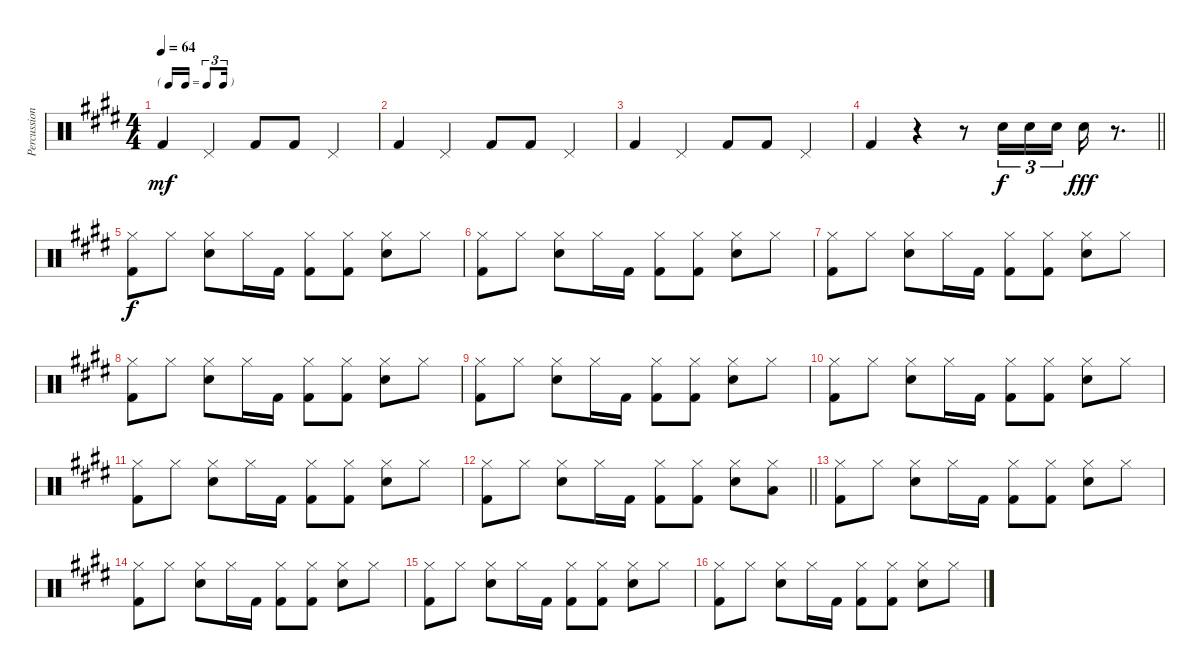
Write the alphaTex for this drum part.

\track ("Percussion" "Percussion") {instrument percussion}
\staff {score}
\articulation defaults
\ts (4 4)
\tf triplet16th
\tempo 64
\clef neutral
\ks e "Kick (hit) 2".4{dy mf} "Pedal Hi-Hat (hit)".4 "Kick (hit) 2".8 "Kick (hit) 2".8 "Pedal Hi-Hat (hit)".4
|
"Kick (hit) 2".4 "Pedal Hi-Hat (hit)".4 "Kick (hit) 2".8 "Kick (hit) 2".8 "Pedal Hi-Hat (hit)".4 |
"Kick (hit) 2".4 "Pedal Hi-Hat (hit)".4 "Kick (hit) 2".8 "Kick (hit) 2".8 "Pedal Hi-Hat (hit)".4 |
\barLineRight lightlight "Kick (hit) 2".4
r.4 r.8 "Snare (hit) 2".16{tu (3 2) dy f} "Snare (hit) 2".16{tu (3 2)} "Snare (hit) 2".16{tu (3 2)} "Snare (hit) 2".16{dy fff} r.8{d} |
("Hi-Hat (closed)" "Kick (hit) 2").8{dy f} "Hi-Hat (closed)".8 ("Hi-Hat (closed)" "Snare (hit) 2").8 "Hi-Hat (closed)".16 "Kick (hit) 2".16 ("Hi-Hat (closed)" "Kick (hit) 2").8 ("Hi-Hat (closed)" "Kick (hit) 2").8 ("Hi-Hat (closed)" "Snare (hit) 2").8 "Hi-Hat (closed)".8 |
("Hi-Hat (closed)" "Kick (hit) 2").8 "Hi-Hat (closed)".8 ("Hi-Hat (closed)" "Snare (hit) 2").8 "Hi-Hat (closed)".16 "Kick (hit) 2".16 ("Hi-Hat (closed)" "Kick (hit) 2").8 ("Hi-Hat (closed)" "Kick (hit) 2").8 ("Hi-Hat (closed)" "Snare (hit) 2").8 "Hi-Hat (closed)".8 |
("Hi-Hat (closed)" "Kick (hit) 2").8 "Hi-Hat (closed)".8 ("Hi-Hat (closed)" "Snare (hit) 2").8 "Hi-Hat (closed)".16 "Kick (hit) 2".16 ("Hi-Hat (closed)" "Kick (hit) 2").8 ("Hi-Hat (closed)" "Kick (hit) 2").8 ("Hi-Hat (closed)" "Snare (hit) 2").8 "Hi-Hat (closed)".8 |
("Hi-Hat (closed)" "Kick (hit) 2").8 "Hi-Hat (closed)".8 ("Hi-Hat (closed)" "Snare (hit) 2").8 "Hi-Hat (closed)".16 "Kick (hit) 2".16 ("Hi-Hat (closed)" "Kick (hit) 2").8 ("Hi-Hat (closed)" "Kick (hit) 2").8 ("Hi-Hat (closed)" "Snare (hit) 2").8 "Hi-Hat (closed)".8 |
("Hi-Hat (closed)" "Kick (hit) 2").8 "Hi-Hat (closed)".8 ("Hi-Hat (closed)" "Snare (hit) 2").8 "Hi-Hat (closed)".16 "Kick (hit) 2".16 ("Hi-Hat (closed)" "Kick (hit) 2").8 ("Hi-Hat (closed)" "Kick (hit) 2").8 ("Hi-Hat (closed)" "Snare (hit) 2").8 "Hi-Hat (closed)".8 |
("Hi-Hat (closed)" "Kick (hit) 2").8 "Hi-Hat (closed)".8 ("Hi-Hat (closed)" "Snare (hit) 2").8 "Hi-Hat (closed)".16 "Kick (hit) 2".16 ("Hi-Hat (closed)" "Kick (hit) 2").8 ("Hi-Hat (closed)" "Kick (hit) 2").8 ("Hi-Hat (closed)" "Snare (hit) 2").8 "Hi-Hat (closed)".8 |
("Hi-Hat (closed)" "Kick (hit) 2").8 "Hi-Hat (closed)".8 ("Hi-Hat (closed)" "Snare (hit) 2").8 "Hi-Hat (closed)".16 "Kick (hit) 2".16 ("Hi-Hat (closed)" "Kick (hit) 2").8 ("Hi-Hat (closed)" "Kick (hit) 2").8 ("Hi-Hat (closed)" "Snare (hit) 2").8 "Hi-Hat (closed)".8 |
\barLineRight lightlight
("Hi-Hat (closed)" "Kick (hit) 2").8 "Hi-Hat (closed)".8 ("Hi-Hat (closed)" "Snare (hit) 2").8 "Hi-Hat (closed)".16 "Kick (hit) 2".16 ("Hi-Hat (closed)" "Kick (hit) 2").8 ("Hi-Hat (closed)" "Kick (hit) 2").8 ("Hi-Hat (closed)" "Snare (hit) 2").8 ("Hi-Hat (closed)" "Low Tom (hit)").8 |
("Hi-Hat (closed)" "Kick (hit) 2").8 "Hi-Hat (closed)".8 ("Hi-Hat (closed)" "Snare (hit) 2").8 "Hi-Hat (closed)".16 "Kick (hit) 2".16 ("Hi-Hat (closed)" "Kick (hit) 2").8 ("Hi-Hat (closed)" "Kick (hit) 2").8 ("Hi-Hat (closed)" "Snare (hit) 2").8 "Hi-Hat (closed)".8 |
("Hi-Hat (closed)" "Kick (hit) 2").8 "Hi-Hat (closed)".8 ("Hi-Hat (closed)" "Snare (hit) 2").8 "Hi-Hat (closed)".16 "Kick (hit) 2".16 ("Hi-Hat (closed)" "Kick (hit) 2").8 ("Hi-Hat (closed)" "Kick (hit) 2").8 ("Hi-Hat (closed)" "Snare (hit) 2").8 "Hi-Hat (closed)".8 |
("Hi-Hat (closed)" "Kick (hit) 2").8 "Hi-Hat (closed)".8 ("Hi-Hat (closed)" "Snare (hit) 2").8 "Hi-Hat (closed)".16 "Kick (hit) 2".16 ("Hi-Hat (closed)" "Kick (hit) 2").8 ("Hi-Hat (closed)" "Kick (hit) 2").8 ("Hi-Hat (closed)" "Snare (hit) 2").8 "Hi-Hat (closed)".8 |
("Hi-Hat (closed)" "Kick (hit) 2").8 "Hi-Hat (closed)".8 ("Hi-Hat (closed)" "Snare (hit) 2").8 "Hi-Hat (closed)".16 "Kick (hit) 2".16 ("Hi-Hat (closed)" "Kick (hit) 2").8 ("Hi-Hat (closed)" "Kick (hit) 2").8 ("Hi-Hat (closed)" "Snare (hit) 2").8 "Hi-Hat (closed)".8
